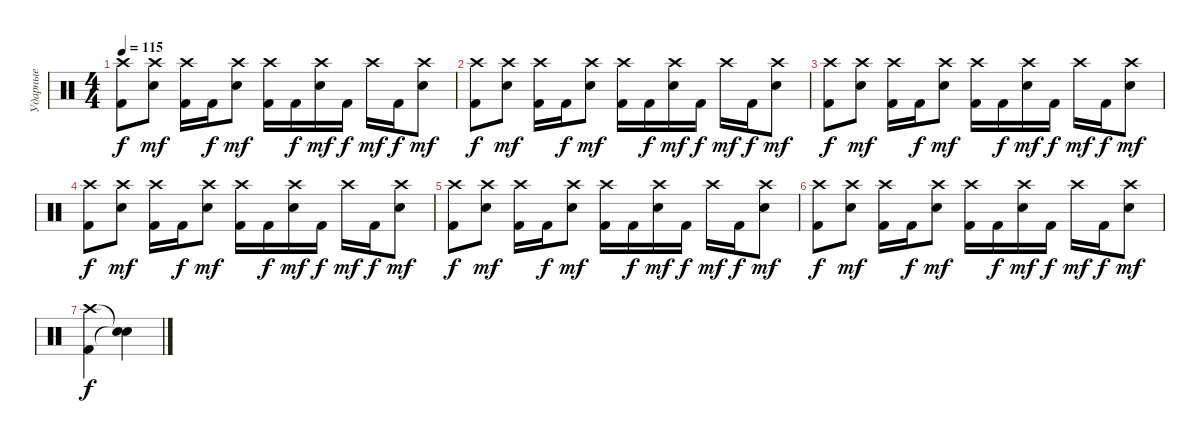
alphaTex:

\track ("Ударные" "Ударные") {instrument percussion}
\staff {score}
\articulation defaults
\ts (4 4)
\tempo 115
\clef neutral
\ks c
("Crash high (hit)" "Kick (hit) 2").8{dy f} ("Crash high (hit)" "Electric Snare (hit)").8{dy mf} ("Crash high (hit)" "Kick (hit) 2").16 "Kick (hit) 2".16{dy f} ("Crash high (hit)" "Electric Snare (hit)").8{dy mf} ("Crash high (hit)" "Kick (hit) 2").16 "Kick (hit) 2".16{dy f} ("Crash high (hit)" "Electric Snare (hit)").16{dy mf} "Kick (hit) 2".16{dy f} "Crash high (hit)".16{dy mf} "Kick (hit) 2".16{dy f} ("Crash high (hit)" "Electric Snare (hit)").8{dy mf} |
("Crash high (hit)" "Kick (hit) 2").8{dy f} ("Crash high (hit)" "Electric Snare (hit)").8{dy mf} ("Crash high (hit)" "Kick (hit) 2").16 "Kick (hit) 2".16{dy f} ("Crash high (hit)" "Electric Snare (hit)").8{dy mf} ("Crash high (hit)" "Kick (hit) 2").16 "Kick (hit) 2".16{dy f} ("Crash high (hit)" "Electric Snare (hit)").16{dy mf} "Kick (hit) 2".16{dy f} "Crash high (hit)".16{dy mf} "Kick (hit) 2".16{dy f} ("Crash high (hit)" "Electric Snare (hit)").8{dy mf} |
("Crash high (hit)" "Kick (hit) 2").8{dy f} ("Crash high (hit)" "Electric Snare (hit)").8{dy mf} ("Crash high (hit)" "Kick (hit) 2").16 "Kick (hit) 2".16{dy f} ("Crash high (hit)" "Electric Snare (hit)").8{dy mf} ("Crash high (hit)" "Kick (hit) 2").16 "Kick (hit) 2".16{dy f} ("Crash high (hit)" "Electric Snare (hit)").16{dy mf} "Kick (hit) 2".16{dy f} "Crash high (hit)".16{dy mf} "Kick (hit) 2".16{dy f} ("Crash high (hit)" "Electric Snare (hit)").8{dy mf} |
("Crash high (hit)" "Kick (hit) 2").8{dy f} ("Crash high (hit)" "Electric Snare (hit)").8{dy mf} ("Crash high (hit)" "Kick (hit) 2").16 "Kick (hit) 2".16{dy f} ("Crash high (hit)" "Electric Snare (hit)").8{dy mf} ("Crash high (hit)" "Kick (hit) 2").16 "Kick (hit) 2".16{dy f} ("Crash high (hit)" "Electric Snare (hit)").16{dy mf} "Kick (hit) 2".16{dy f} "Crash high (hit)".16{dy mf} "Kick (hit) 2".16{dy f} ("Crash high (hit)" "Electric Snare (hit)").8{dy mf} |
("Crash high (hit)" "Kick (hit) 2").8{dy f} ("Crash high (hit)" "Electric Snare (hit)").8{dy mf} ("Crash high (hit)" "Kick (hit) 2").16 "Kick (hit) 2".16{dy f} ("Crash high (hit)" "Electric Snare (hit)").8{dy mf} ("Crash high (hit)" "Kick (hit) 2").16 "Kick (hit) 2".16{dy f} ("Crash high (hit)" "Electric Snare (hit)").16{dy mf} "Kick (hit) 2".16{dy f} "Crash high (hit)".16{dy mf} "Kick (hit) 2".16{dy f} ("Crash high (hit)" "Electric Snare (hit)").8{dy mf} |
("Crash high (hit)" "Kick (hit) 2").8{dy f} ("Crash high (hit)" "Electric Snare (hit)").8{dy mf} ("Crash high (hit)" "Kick (hit) 2").16 "Kick (hit) 2".16{dy f} ("Crash high (hit)" "Electric Snare (hit)").8{dy mf} ("Crash high (hit)" "Kick (hit) 2").16 "Kick (hit) 2".16{dy f} ("Crash high (hit)" "Electric Snare (hit)").16{dy mf} "Kick (hit) 2".16{dy f} "Crash high (hit)".16{dy mf} "Kick (hit) 2".16{dy f} ("Crash high (hit)" "Electric Snare (hit)").8{dy mf} |
("Crash high (hit)" "Kick (hit) 2").4{dy f} ("Snare (hit)"{t} "Snare (hit)"{t}).4
